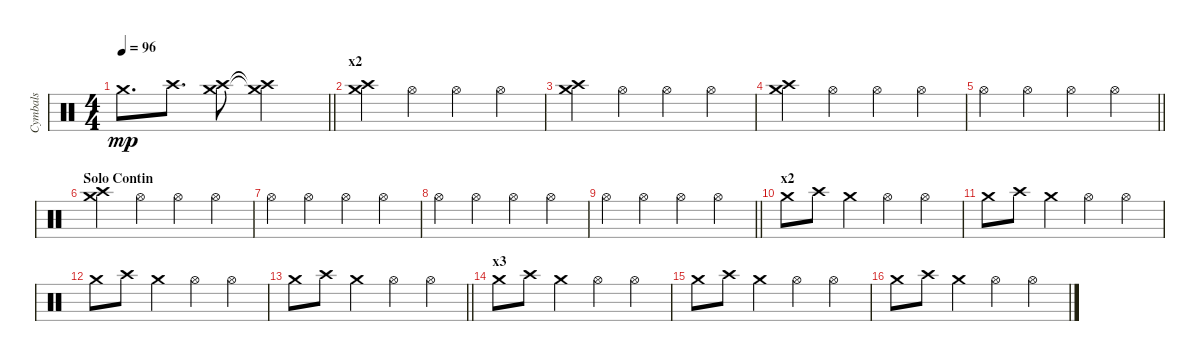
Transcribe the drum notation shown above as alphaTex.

\track ("Cymbals" "Cymbals") {instrument percussion}
\staff {score}
\articulation defaults
\ts (4 4)
\tempo 96
\clef neutral
\barLineRight lightlight
\ks c "Crash medium (hit)".8{d dy mp} "Crash high (hit)".8{d}
("Crash medium (hit)" "Crash high (hit)").8 ("Crash medium (hit)"{t} "Crash high (hit)"{t}).2 |
\section ("" "x2")
("Crash medium (hit)" "Crash high (hit)").4 "Hi-Hat (open)".4 "Hi-Hat (open)".4 "Hi-Hat (open)".4 |
("Crash medium (hit)" "Crash high (hit)").4 "Hi-Hat (open)".4 "Hi-Hat (open)".4 "Hi-Hat (open)".4 |
("Crash medium (hit)" "Crash high (hit)").4 "Hi-Hat (open)".4 "Hi-Hat (open)".4 "Hi-Hat (open)".4 |
\barLineRight lightlight "Hi-Hat (open)".4 "Hi-Hat (open)".4 "Hi-Hat (open)".4 "Hi-Hat (open)".4
|
\section ("" "Solo Contin")
("Crash medium (hit)" "Crash high (hit)").4 "Hi-Hat (open)".4 "Hi-Hat (open)".4 "Hi-Hat (open)".4 |
"Hi-Hat (open)".4 "Hi-Hat (open)".4 "Hi-Hat (open)".4 "Hi-Hat (open)".4 |
"Hi-Hat (open)".4 "Hi-Hat (open)".4 "Hi-Hat (open)".4 "Hi-Hat (open)".4 |
\barLineRight lightlight "Hi-Hat (open)".4 "Hi-Hat (open)".4 "Hi-Hat (open)".4 "Hi-Hat (open)".4
|
\section ("" "x2")
"Crash medium (hit)".8 "Crash high (hit)".8 "Crash medium (hit)".4 "Hi-Hat (open)".4 "Hi-Hat (open)".4 |
"Crash medium (hit)".8 "Crash high (hit)".8 "Crash medium (hit)".4 "Hi-Hat (open)".4 "Hi-Hat (open)".4 |
"Crash medium (hit)".8 "Crash high (hit)".8 "Crash medium (hit)".4 "Hi-Hat (open)".4 "Hi-Hat (open)".4 |
\barLineRight lightlight "Crash medium (hit)".8 "Crash high (hit)".8 "Crash medium (hit)".4 "Hi-Hat (open)".4 "Hi-Hat (open)".4
|
\section ("" "x3")
"Crash medium (hit)".8 "Crash high (hit)".8 "Crash medium (hit)".4 "Hi-Hat (open)".4 "Hi-Hat (open)".4 |
"Crash medium (hit)".8 "Crash high (hit)".8 "Crash medium (hit)".4 "Hi-Hat (open)".4 "Hi-Hat (open)".4 |
"Crash medium (hit)".8 "Crash high (hit)".8 "Crash medium (hit)".4 "Hi-Hat (open)".4 "Hi-Hat (open)".4
